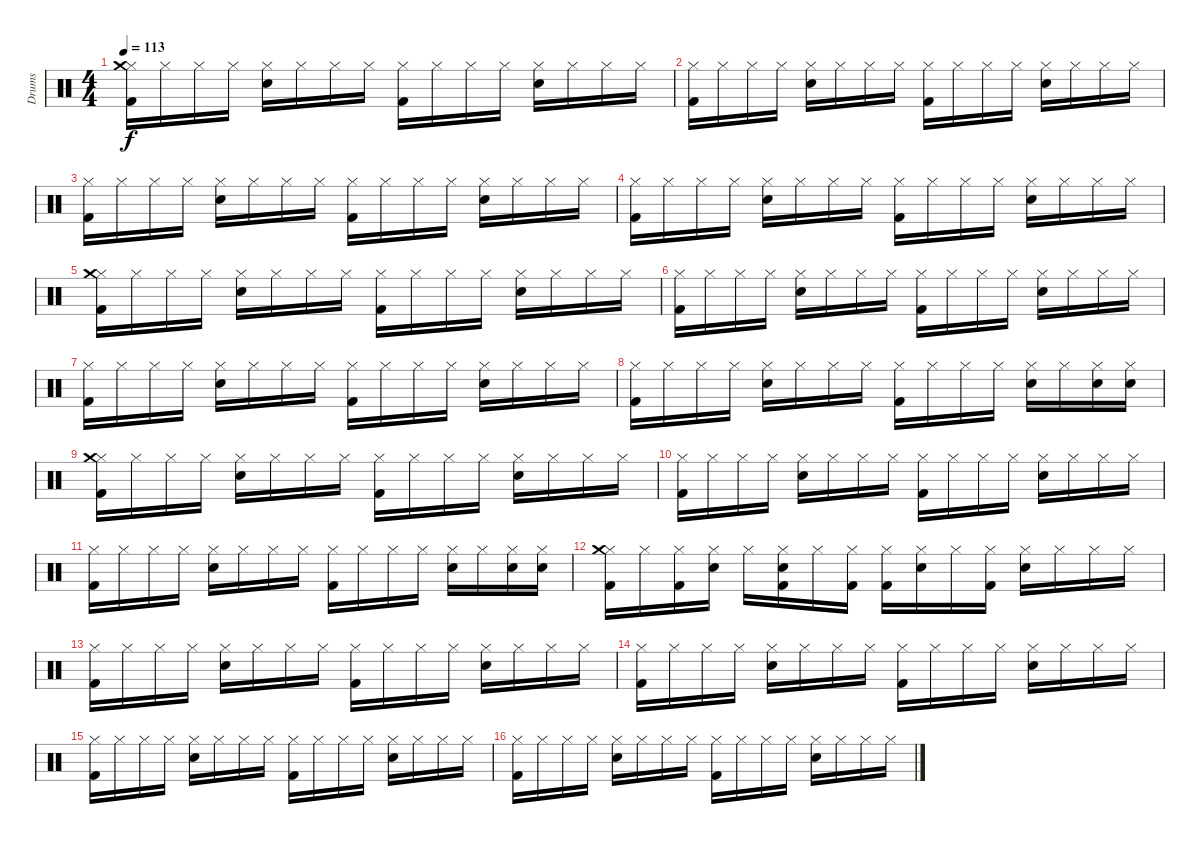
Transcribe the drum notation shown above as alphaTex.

\track ("Drums" "Drums") {instrument percussion}
\staff {score}
\articulation defaults
\ts (4 4)
\tempo 113
\clef neutral
\ks c
("Hi-Hat (closed)" "Kick (hit) 2" "Crash medium (hit)").16{dy f} "Hi-Hat (closed)".16 "Hi-Hat (closed)".16 "Hi-Hat (closed)".16 ("Hi-Hat (closed)" "Electric Snare (hit)").16 "Hi-Hat (closed)".16 "Hi-Hat (closed)".16 "Hi-Hat (closed)".16 ("Hi-Hat (closed)" "Kick (hit) 2").16 "Hi-Hat (closed)".16 "Hi-Hat (closed)".16 "Hi-Hat (closed)".16 ("Hi-Hat (closed)" "Electric Snare (hit)").16 "Hi-Hat (closed)".16 "Hi-Hat (closed)".16 "Hi-Hat (closed)".16 |
("Hi-Hat (closed)" "Kick (hit) 2").16 "Hi-Hat (closed)".16 "Hi-Hat (closed)".16 "Hi-Hat (closed)".16 ("Hi-Hat (closed)" "Electric Snare (hit)").16 "Hi-Hat (closed)".16 "Hi-Hat (closed)".16 "Hi-Hat (closed)".16 ("Hi-Hat (closed)" "Kick (hit) 2").16 "Hi-Hat (closed)".16 "Hi-Hat (closed)".16 "Hi-Hat (closed)".16 ("Hi-Hat (closed)" "Electric Snare (hit)").16 "Hi-Hat (closed)".16 "Hi-Hat (closed)".16 "Hi-Hat (closed)".16 |
("Hi-Hat (closed)" "Kick (hit) 2").16 "Hi-Hat (closed)".16 "Hi-Hat (closed)".16 "Hi-Hat (closed)".16 ("Hi-Hat (closed)" "Electric Snare (hit)").16 "Hi-Hat (closed)".16 "Hi-Hat (closed)".16 "Hi-Hat (closed)".16 ("Hi-Hat (closed)" "Kick (hit) 2").16 "Hi-Hat (closed)".16 "Hi-Hat (closed)".16 "Hi-Hat (closed)".16 ("Hi-Hat (closed)" "Electric Snare (hit)").16 "Hi-Hat (closed)".16 "Hi-Hat (closed)".16 "Hi-Hat (closed)".16 |
("Hi-Hat (closed)" "Kick (hit) 2").16 "Hi-Hat (closed)".16 "Hi-Hat (closed)".16 "Hi-Hat (closed)".16 ("Hi-Hat (closed)" "Electric Snare (hit)").16 "Hi-Hat (closed)".16 "Hi-Hat (closed)".16 "Hi-Hat (closed)".16 ("Hi-Hat (closed)" "Kick (hit) 2").16 "Hi-Hat (closed)".16 "Hi-Hat (closed)".16 "Hi-Hat (closed)".16 ("Hi-Hat (closed)" "Electric Snare (hit)").16 "Hi-Hat (closed)".16 "Hi-Hat (closed)".16 "Hi-Hat (closed)".16 |
("Hi-Hat (closed)" "Kick (hit) 2" "Crash medium (hit)").16 "Hi-Hat (closed)".16 "Hi-Hat (closed)".16 "Hi-Hat (closed)".16 ("Hi-Hat (closed)" "Electric Snare (hit)").16 "Hi-Hat (closed)".16 "Hi-Hat (closed)".16 "Hi-Hat (closed)".16 ("Hi-Hat (closed)" "Kick (hit) 2").16 "Hi-Hat (closed)".16 "Hi-Hat (closed)".16 "Hi-Hat (closed)".16 ("Hi-Hat (closed)" "Electric Snare (hit)").16 "Hi-Hat (closed)".16 "Hi-Hat (closed)".16 "Hi-Hat (closed)".16 |
("Hi-Hat (closed)" "Kick (hit) 2").16 "Hi-Hat (closed)".16 "Hi-Hat (closed)".16 "Hi-Hat (closed)".16 ("Hi-Hat (closed)" "Electric Snare (hit)").16 "Hi-Hat (closed)".16 "Hi-Hat (closed)".16 "Hi-Hat (closed)".16 ("Hi-Hat (closed)" "Kick (hit) 2").16 "Hi-Hat (closed)".16 "Hi-Hat (closed)".16 "Hi-Hat (closed)".16 ("Hi-Hat (closed)" "Electric Snare (hit)").16 "Hi-Hat (closed)".16 "Hi-Hat (closed)".16 "Hi-Hat (closed)".16 |
("Hi-Hat (closed)" "Kick (hit) 2").16 "Hi-Hat (closed)".16 "Hi-Hat (closed)".16 "Hi-Hat (closed)".16 ("Hi-Hat (closed)" "Electric Snare (hit)").16 "Hi-Hat (closed)".16 "Hi-Hat (closed)".16 "Hi-Hat (closed)".16 ("Hi-Hat (closed)" "Kick (hit) 2").16 "Hi-Hat (closed)".16 "Hi-Hat (closed)".16 "Hi-Hat (closed)".16 ("Hi-Hat (closed)" "Electric Snare (hit)").16 "Hi-Hat (closed)".16 "Hi-Hat (closed)".16 "Hi-Hat (closed)".16 |
("Hi-Hat (closed)" "Kick (hit) 2").16 "Hi-Hat (closed)".16 "Hi-Hat (closed)".16 "Hi-Hat (closed)".16 ("Hi-Hat (closed)" "Electric Snare (hit)").16 "Hi-Hat (closed)".16 "Hi-Hat (closed)".16 "Hi-Hat (closed)".16 ("Hi-Hat (closed)" "Kick (hit) 2").16 "Hi-Hat (closed)".16 "Hi-Hat (closed)".16 "Hi-Hat (closed)".16 ("Hi-Hat (closed)" "Electric Snare (hit)").16 "Hi-Hat (closed)".16 ("Hi-Hat (closed)" "Electric Snare (hit)").16 ("Hi-Hat (closed)" "Electric Snare (hit)").16 |
("Hi-Hat (closed)" "Crash medium (hit)" "Kick (hit) 2").16 "Hi-Hat (closed)".16 "Hi-Hat (closed)".16 "Hi-Hat (closed)".16 ("Hi-Hat (closed)" "Electric Snare (hit)").16 "Hi-Hat (closed)".16 "Hi-Hat (closed)".16 "Hi-Hat (closed)".16 ("Hi-Hat (closed)" "Kick (hit) 2").16 "Hi-Hat (closed)".16 "Hi-Hat (closed)".16 "Hi-Hat (closed)".16 ("Hi-Hat (closed)" "Electric Snare (hit)").16 "Hi-Hat (closed)".16 "Hi-Hat (closed)".16 "Hi-Hat (closed)".16 |
("Hi-Hat (closed)" "Kick (hit) 2").16 "Hi-Hat (closed)".16 "Hi-Hat (closed)".16 "Hi-Hat (closed)".16 ("Hi-Hat (closed)" "Electric Snare (hit)").16 "Hi-Hat (closed)".16 "Hi-Hat (closed)".16 "Hi-Hat (closed)".16 ("Hi-Hat (closed)" "Kick (hit) 2").16 "Hi-Hat (closed)".16 "Hi-Hat (closed)".16 "Hi-Hat (closed)".16 ("Hi-Hat (closed)" "Electric Snare (hit)").16 "Hi-Hat (closed)".16 "Hi-Hat (closed)".16 "Hi-Hat (closed)".16 |
("Hi-Hat (closed)" "Kick (hit) 2").16 "Hi-Hat (closed)".16 "Hi-Hat (closed)".16 "Hi-Hat (closed)".16 ("Hi-Hat (closed)" "Electric Snare (hit)").16 "Hi-Hat (closed)".16 "Hi-Hat (closed)".16 "Hi-Hat (closed)".16 ("Hi-Hat (closed)" "Kick (hit) 2").16 "Hi-Hat (closed)".16 "Hi-Hat (closed)".16 "Hi-Hat (closed)".16 ("Hi-Hat (closed)" "Electric Snare (hit)").16 "Hi-Hat (closed)".16 ("Hi-Hat (closed)" "Electric Snare (hit)").16 ("Hi-Hat (closed)" "Electric Snare (hit)").16 |
("Hi-Hat (closed)" "Crash medium (hit)" "Kick (hit) 2").16 "Hi-Hat (closed)".16 ("Hi-Hat (closed)" "Kick (hit) 2").16 ("Hi-Hat (closed)" "Electric Snare (hit)").16 "Hi-Hat (closed)".16 ("Hi-Hat (closed)" "Electric Snare (hit)" "Kick (hit) 2").16 "Hi-Hat (closed)".16 ("Hi-Hat (closed)" "Kick (hit) 2").16 ("Hi-Hat (closed)" "Kick (hit) 2").16 ("Hi-Hat (closed)" "Electric Snare (hit)").16 "Hi-Hat (closed)".16 ("Hi-Hat (closed)" "Kick (hit) 2").16 ("Hi-Hat (closed)" "Electric Snare (hit)").16 "Hi-Hat (closed)".16 "Hi-Hat (closed)".16 "Hi-Hat (closed)".16 |
("Hi-Hat (closed)" "Kick (hit) 2").16 "Hi-Hat (closed)".16 "Hi-Hat (closed)".16 "Hi-Hat (closed)".16 ("Hi-Hat (closed)" "Electric Snare (hit)").16 "Hi-Hat (closed)".16 "Hi-Hat (closed)".16 "Hi-Hat (closed)".16 ("Hi-Hat (closed)" "Kick (hit) 2").16 "Hi-Hat (closed)".16 "Hi-Hat (closed)".16 "Hi-Hat (closed)".16 ("Hi-Hat (closed)" "Electric Snare (hit)").16 "Hi-Hat (closed)".16 "Hi-Hat (closed)".16 "Hi-Hat (closed)".16 |
("Hi-Hat (closed)" "Kick (hit) 2").16 "Hi-Hat (closed)".16 "Hi-Hat (closed)".16 "Hi-Hat (closed)".16 ("Hi-Hat (closed)" "Electric Snare (hit)").16 "Hi-Hat (closed)".16 "Hi-Hat (closed)".16 "Hi-Hat (closed)".16 ("Hi-Hat (closed)" "Kick (hit) 2").16 "Hi-Hat (closed)".16 "Hi-Hat (closed)".16 "Hi-Hat (closed)".16 ("Hi-Hat (closed)" "Electric Snare (hit)").16 "Hi-Hat (closed)".16 "Hi-Hat (closed)".16 "Hi-Hat (closed)".16 |
("Hi-Hat (closed)" "Kick (hit) 2").16 "Hi-Hat (closed)".16 "Hi-Hat (closed)".16 "Hi-Hat (closed)".16 ("Hi-Hat (closed)" "Electric Snare (hit)").16 "Hi-Hat (closed)".16 "Hi-Hat (closed)".16 "Hi-Hat (closed)".16 ("Hi-Hat (closed)" "Kick (hit) 2").16 "Hi-Hat (closed)".16 "Hi-Hat (closed)".16 "Hi-Hat (closed)".16 ("Hi-Hat (closed)" "Electric Snare (hit)").16 "Hi-Hat (closed)".16 "Hi-Hat (closed)".16 "Hi-Hat (closed)".16 |
("Hi-Hat (closed)" "Kick (hit) 2").16 "Hi-Hat (closed)".16 "Hi-Hat (closed)".16 "Hi-Hat (closed)".16 ("Hi-Hat (closed)" "Electric Snare (hit)").16 "Hi-Hat (closed)".16 "Hi-Hat (closed)".16 "Hi-Hat (closed)".16 ("Hi-Hat (closed)" "Kick (hit) 2").16 "Hi-Hat (closed)".16 "Hi-Hat (closed)".16 "Hi-Hat (closed)".16 ("Hi-Hat (closed)" "Electric Snare (hit)").16 "Hi-Hat (closed)".16 "Hi-Hat (closed)".16 "Hi-Hat (closed)".16
